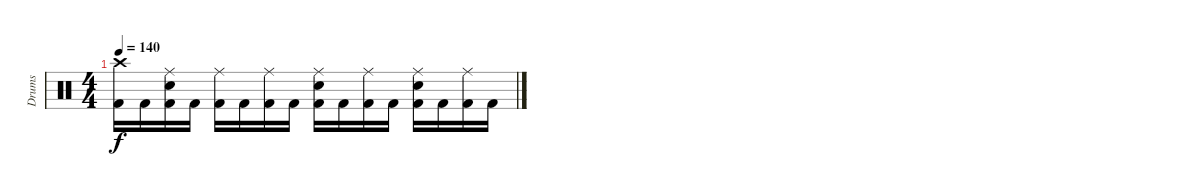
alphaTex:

\track ("Drums" "Drums") {instrument percussion}
\staff {score}
\articulation defaults
\ts (4 4)
\tempo 140
\clef neutral
\ks c
("Crash high (hit)" "Kick (hit) 2").16{dy f} "Kick (hit) 2".16 ("Ride (middle)" "Electric Snare (hit)" "Kick (hit) 2").16 "Kick (hit) 2".16 ("Ride (middle)" "Kick (hit) 2").16 "Kick (hit) 2".16 ("Ride (middle)" "Kick (hit) 2").16 "Kick (hit) 2".16 ("Ride (middle)" "Electric Snare (hit)" "Kick (hit) 2").16 "Kick (hit) 2".16 ("Ride (middle)" "Kick (hit) 2").16 "Kick (hit) 2".16 ("Ride (middle)" "Electric Snare (hit)" "Kick (hit) 2").16 "Kick (hit) 2".16 ("Ride (middle)" "Kick (hit) 2").16 "Kick (hit) 2".16
